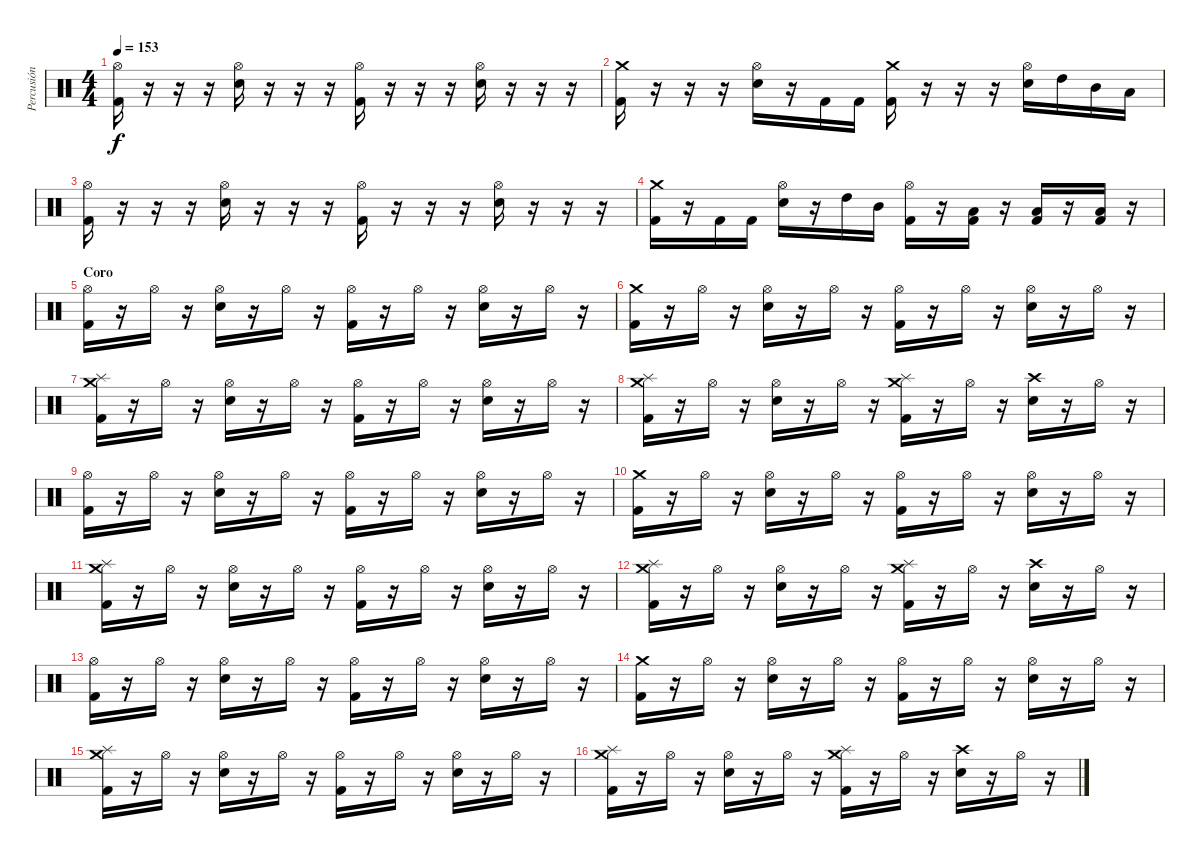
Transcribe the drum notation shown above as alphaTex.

\track ("Percusión" "Percusión") {instrument percussion}
\staff {score}
\articulation defaults
\ts (4 4)
\tempo 153
\clef neutral
\ks c
("Kick (hit) 2" "Hi-Hat (open)").16{dy f} r.16 r.16 r.16 ("Electric Snare (hit)" "Hi-Hat (open)").16 r.16 r.16 r.16 ("Kick (hit) 2" "Hi-Hat (open)").16 r.16 r.16 r.16 ("Electric Snare (hit)" "Hi-Hat (open)").16 r.16 r.16 r.16 |
("Kick (hit) 2" "Crash medium (hit)").16 r.16 r.16 r.16 ("Electric Snare (hit)" "Hi-Hat (open)").16 r.16 "Kick (hit) 2".16 "Kick (hit) 2".16 ("Kick (hit) 2" "Crash medium (hit)").16 r.16 r.16 r.16 ("Electric Snare (hit)" "Hi-Hat (open)").16 "High Tom (hit)".16 "Mid Tom (hit)".16 "Low Tom (hit)".16 |
("Kick (hit) 2" "Hi-Hat (open)").16 r.16 r.16 r.16 ("Electric Snare (hit)" "Hi-Hat (open)").16 r.16 r.16 r.16 ("Kick (hit) 2" "Hi-Hat (open)").16 r.16 r.16 r.16 ("Electric Snare (hit)" "Hi-Hat (open)").16 r.16 r.16 r.16 |
("Kick (hit) 2" "Crash medium (hit)").16 r.16 "Kick (hit) 2".16 "Kick (hit) 2".16 ("Electric Snare (hit)" "Hi-Hat (open)").16 r.16 "High Tom (hit)".16 "Mid Tom (hit)".16 ("Kick (hit) 2" "Hi-Hat (open)").16 r.16 ("Kick (hit) 2" "Low Floor Tom (hit)").16 r.16 ("Kick (hit) 2" "Low Floor Tom (hit)").16 r.16 ("Kick (hit) 2" "Low Floor Tom (hit)").16 r.16 |
\section ("" "Coro")
("Kick (hit) 2" "Hi-Hat (open)").16 r.16 "Hi-Hat (open)".16 r.16 ("Electric Snare (hit)" "Hi-Hat (open)").16 r.16 "Hi-Hat (open)".16 r.16 ("Kick (hit) 2" "Hi-Hat (open)").16 r.16 "Hi-Hat (open)".16 r.16 ("Electric Snare (hit)" "Hi-Hat (open)").16 r.16 "Hi-Hat (open)".16 r.16 |
("Kick (hit) 2" "Crash medium (hit)").16 r.16 "Hi-Hat (open)".16 r.16 ("Electric Snare (hit)" "Hi-Hat (open)").16 r.16 "Hi-Hat (open)".16 r.16 ("Kick (hit) 2" "Hi-Hat (open)").16 r.16 "Hi-Hat (open)".16 r.16 ("Electric Snare (hit)" "Hi-Hat (open)").16 r.16 "Hi-Hat (open)".16 r.16 |
("Kick (hit) 2" "Crash medium (hit)" "Splash (hit)").16 r.16 "Hi-Hat (open)".16 r.16 ("Electric Snare (hit)" "Hi-Hat (open)").16 r.16 "Hi-Hat (open)".16 r.16 ("Kick (hit) 2" "Hi-Hat (open)").16 r.16 "Hi-Hat (open)".16 r.16 ("Electric Snare (hit)" "Hi-Hat (open)").16 r.16 "Hi-Hat (open)".16 r.16 |
("Kick (hit) 2" "Crash medium (hit)" "Splash (hit)").16 r.16 "Hi-Hat (open)".16 r.16 ("Electric Snare (hit)" "Hi-Hat (open)").16 r.16 "Hi-Hat (open)".16 r.16 ("Kick (hit) 2" "Crash medium (hit)" "Splash (hit)").16 r.16 "Hi-Hat (open)".16 r.16 ("Electric Snare (hit)" "Crash high (hit)").16 r.16 "Hi-Hat (open)".16 r.16 |
("Kick (hit) 2" "Hi-Hat (open)").16 r.16 "Hi-Hat (open)".16 r.16 ("Electric Snare (hit)" "Hi-Hat (open)").16 r.16 "Hi-Hat (open)".16 r.16 ("Kick (hit) 2" "Hi-Hat (open)").16 r.16 "Hi-Hat (open)".16 r.16 ("Electric Snare (hit)" "Hi-Hat (open)").16 r.16 "Hi-Hat (open)".16 r.16 |
("Kick (hit) 2" "Crash medium (hit)").16 r.16 "Hi-Hat (open)".16 r.16 ("Electric Snare (hit)" "Hi-Hat (open)").16 r.16 "Hi-Hat (open)".16 r.16 ("Kick (hit) 2" "Hi-Hat (open)").16 r.16 "Hi-Hat (open)".16 r.16 ("Electric Snare (hit)" "Hi-Hat (open)").16 r.16 "Hi-Hat (open)".16 r.16 |
("Kick (hit) 2" "Crash medium (hit)" "Splash (hit)").16 r.16 "Hi-Hat (open)".16 r.16 ("Electric Snare (hit)" "Hi-Hat (open)").16 r.16 "Hi-Hat (open)".16 r.16 ("Kick (hit) 2" "Hi-Hat (open)").16 r.16 "Hi-Hat (open)".16 r.16 ("Electric Snare (hit)" "Hi-Hat (open)").16 r.16 "Hi-Hat (open)".16 r.16 |
("Kick (hit) 2" "Crash medium (hit)" "Splash (hit)").16 r.16 "Hi-Hat (open)".16 r.16 ("Electric Snare (hit)" "Hi-Hat (open)").16 r.16 "Hi-Hat (open)".16 r.16 ("Kick (hit) 2" "Crash medium (hit)" "Splash (hit)").16 r.16 "Hi-Hat (open)".16 r.16 ("Electric Snare (hit)" "Crash high (hit)").16 r.16 "Hi-Hat (open)".16 r.16 |
("Kick (hit) 2" "Hi-Hat (open)").16 r.16 "Hi-Hat (open)".16 r.16 ("Electric Snare (hit)" "Hi-Hat (open)").16 r.16 "Hi-Hat (open)".16 r.16 ("Kick (hit) 2" "Hi-Hat (open)").16 r.16 "Hi-Hat (open)".16 r.16 ("Electric Snare (hit)" "Hi-Hat (open)").16 r.16 "Hi-Hat (open)".16 r.16 |
("Kick (hit) 2" "Crash medium (hit)").16 r.16 "Hi-Hat (open)".16 r.16 ("Electric Snare (hit)" "Hi-Hat (open)").16 r.16 "Hi-Hat (open)".16 r.16 ("Kick (hit) 2" "Hi-Hat (open)").16 r.16 "Hi-Hat (open)".16 r.16 ("Electric Snare (hit)" "Hi-Hat (open)").16 r.16 "Hi-Hat (open)".16 r.16 |
("Kick (hit) 2" "Crash medium (hit)" "Splash (hit)").16 r.16 "Hi-Hat (open)".16 r.16 ("Electric Snare (hit)" "Hi-Hat (open)").16 r.16 "Hi-Hat (open)".16 r.16 ("Kick (hit) 2" "Hi-Hat (open)").16 r.16 "Hi-Hat (open)".16 r.16 ("Electric Snare (hit)" "Hi-Hat (open)").16 r.16 "Hi-Hat (open)".16 r.16 |
("Kick (hit) 2" "Crash medium (hit)" "Splash (hit)").16 r.16 "Hi-Hat (open)".16 r.16 ("Electric Snare (hit)" "Hi-Hat (open)").16 r.16 "Hi-Hat (open)".16 r.16 ("Kick (hit) 2" "Crash medium (hit)" "Splash (hit)").16 r.16 "Hi-Hat (open)".16 r.16 ("Electric Snare (hit)" "Crash high (hit)").16 r.16 "Hi-Hat (open)".16 r.16
